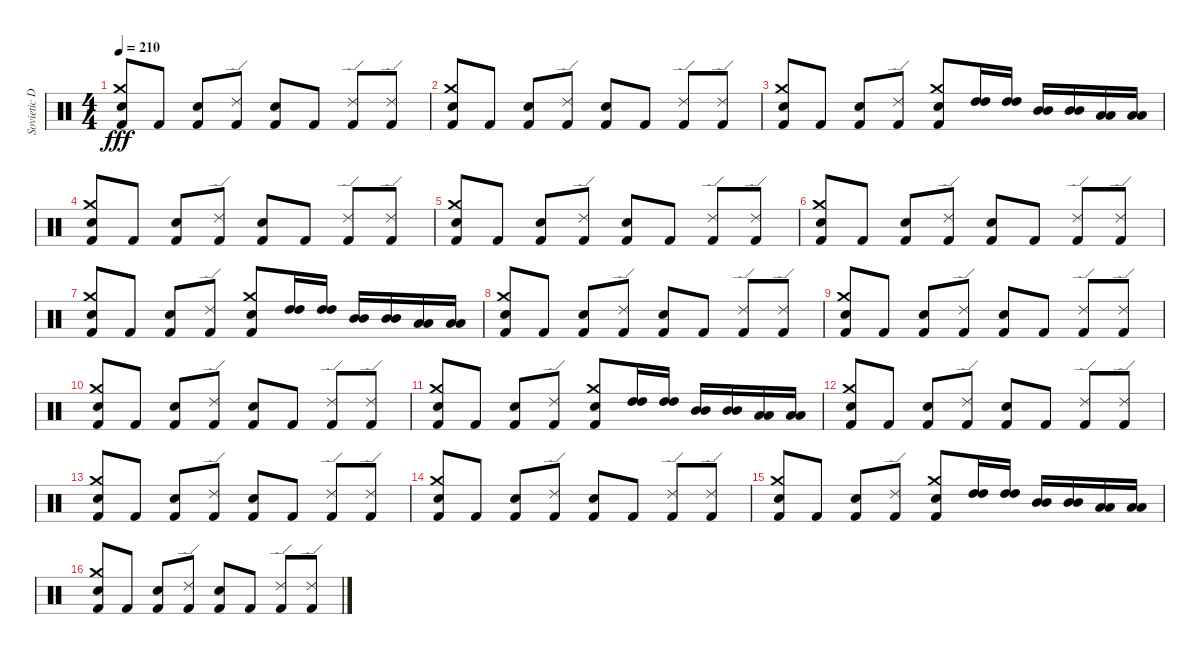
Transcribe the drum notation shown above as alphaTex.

\track ("Sovietic Drummer" "Sovietic D") {instrument percussion}
\staff {score}
\articulation defaults
\ts (4 4)
\tempo 210
\clef neutral
\ks c
("Electric Snare (hit)" "Crash medium (hit)" "Kick (hit) 2").8{dy fff} "Kick (hit) 2".8 ("Electric Snare (hit)" "Kick (hit) 2").8 ("Ride (edge) 2" "Kick (hit) 2").8 ("Electric Snare (hit)" "Kick (hit) 2").8 "Kick (hit) 2".8 ("Ride (edge) 2" "Kick (hit) 2").8 ("Ride (edge) 2" "Kick (hit) 2").8 |
("Electric Snare (hit)" "Crash medium (hit)" "Kick (hit) 2").8 "Kick (hit) 2".8 ("Electric Snare (hit)" "Kick (hit) 2").8 ("Ride (edge) 2" "Kick (hit) 2").8 ("Electric Snare (hit)" "Kick (hit) 2").8 "Kick (hit) 2".8 ("Ride (edge) 2" "Kick (hit) 2").8 ("Ride (edge) 2" "Kick (hit) 2").8 |
("Electric Snare (hit)" "Crash medium (hit)" "Kick (hit) 2").8 "Kick (hit) 2".8 ("Electric Snare (hit)" "Kick (hit) 2").8 ("Ride (edge) 2" "Kick (hit) 2").8 ("Crash medium (hit)" "Electric Snare (hit)" "Kick (hit) 2").8 ("High Tom (hit)" "High Tom (hit)").16 ("High Tom (hit)" "High Tom (hit)").16 ("Mid Tom (hit)" "Mid Tom (hit)").16 ("Mid Tom (hit)" "Mid Tom (hit)").16 ("Low Tom (hit)" "Low Tom (hit)").16 ("Low Tom (hit)" "Low Tom (hit)").16 |
("Electric Snare (hit)" "Crash medium (hit)" "Kick (hit) 2").8 "Kick (hit) 2".8 ("Electric Snare (hit)" "Kick (hit) 2").8 ("Ride (edge) 2" "Kick (hit) 2").8 ("Electric Snare (hit)" "Kick (hit) 2").8 "Kick (hit) 2".8 ("Ride (edge) 2" "Kick (hit) 2").8 ("Ride (edge) 2" "Kick (hit) 2").8 |
("Electric Snare (hit)" "Crash medium (hit)" "Kick (hit) 2").8 "Kick (hit) 2".8 ("Electric Snare (hit)" "Kick (hit) 2").8 ("Ride (edge) 2" "Kick (hit) 2").8 ("Electric Snare (hit)" "Kick (hit) 2").8 "Kick (hit) 2".8 ("Ride (edge) 2" "Kick (hit) 2").8 ("Ride (edge) 2" "Kick (hit) 2").8 |
("Electric Snare (hit)" "Crash medium (hit)" "Kick (hit) 2").8 "Kick (hit) 2".8 ("Electric Snare (hit)" "Kick (hit) 2").8 ("Ride (edge) 2" "Kick (hit) 2").8 ("Electric Snare (hit)" "Kick (hit) 2").8 "Kick (hit) 2".8 ("Ride (edge) 2" "Kick (hit) 2").8 ("Ride (edge) 2" "Kick (hit) 2").8 |
("Electric Snare (hit)" "Crash medium (hit)" "Kick (hit) 2").8 "Kick (hit) 2".8 ("Electric Snare (hit)" "Kick (hit) 2").8 ("Ride (edge) 2" "Kick (hit) 2").8 ("Crash medium (hit)" "Electric Snare (hit)" "Kick (hit) 2").8 ("High Tom (hit)" "High Tom (hit)").16 ("High Tom (hit)" "High Tom (hit)").16 ("Mid Tom (hit)" "Mid Tom (hit)").16 ("Mid Tom (hit)" "Mid Tom (hit)").16 ("Low Tom (hit)" "Low Tom (hit)").16 ("Low Tom (hit)" "Low Tom (hit)").16 |
("Electric Snare (hit)" "Crash medium (hit)" "Kick (hit) 2").8 "Kick (hit) 2".8 ("Electric Snare (hit)" "Kick (hit) 2").8 ("Ride (edge) 2" "Kick (hit) 2").8 ("Electric Snare (hit)" "Kick (hit) 2").8 "Kick (hit) 2".8 ("Ride (edge) 2" "Kick (hit) 2").8 ("Ride (edge) 2" "Kick (hit) 2").8 |
("Electric Snare (hit)" "Crash medium (hit)" "Kick (hit) 2").8 "Kick (hit) 2".8 ("Electric Snare (hit)" "Kick (hit) 2").8 ("Ride (edge) 2" "Kick (hit) 2").8 ("Electric Snare (hit)" "Kick (hit) 2").8 "Kick (hit) 2".8 ("Ride (edge) 2" "Kick (hit) 2").8 ("Ride (edge) 2" "Kick (hit) 2").8 |
("Electric Snare (hit)" "Crash medium (hit)" "Kick (hit) 2").8 "Kick (hit) 2".8 ("Electric Snare (hit)" "Kick (hit) 2").8 ("Ride (edge) 2" "Kick (hit) 2").8 ("Electric Snare (hit)" "Kick (hit) 2").8 "Kick (hit) 2".8 ("Ride (edge) 2" "Kick (hit) 2").8 ("Ride (edge) 2" "Kick (hit) 2").8 |
("Electric Snare (hit)" "Crash medium (hit)" "Kick (hit) 2").8 "Kick (hit) 2".8 ("Electric Snare (hit)" "Kick (hit) 2").8 ("Ride (edge) 2" "Kick (hit) 2").8 ("Crash medium (hit)" "Electric Snare (hit)" "Kick (hit) 2").8 ("High Tom (hit)" "High Tom (hit)").16 ("High Tom (hit)" "High Tom (hit)").16 ("Mid Tom (hit)" "Mid Tom (hit)").16 ("Mid Tom (hit)" "Mid Tom (hit)").16 ("Low Tom (hit)" "Low Tom (hit)").16 ("Low Tom (hit)" "Low Tom (hit)").16 |
("Electric Snare (hit)" "Crash medium (hit)" "Kick (hit) 2").8 "Kick (hit) 2".8 ("Electric Snare (hit)" "Kick (hit) 2").8 ("Ride (edge) 2" "Kick (hit) 2").8 ("Electric Snare (hit)" "Kick (hit) 2").8 "Kick (hit) 2".8 ("Ride (edge) 2" "Kick (hit) 2").8 ("Ride (edge) 2" "Kick (hit) 2").8 |
("Electric Snare (hit)" "Crash medium (hit)" "Kick (hit) 2").8 "Kick (hit) 2".8 ("Electric Snare (hit)" "Kick (hit) 2").8 ("Ride (edge) 2" "Kick (hit) 2").8 ("Electric Snare (hit)" "Kick (hit) 2").8 "Kick (hit) 2".8 ("Ride (edge) 2" "Kick (hit) 2").8 ("Ride (edge) 2" "Kick (hit) 2").8 |
("Electric Snare (hit)" "Crash medium (hit)" "Kick (hit) 2").8 "Kick (hit) 2".8 ("Electric Snare (hit)" "Kick (hit) 2").8 ("Ride (edge) 2" "Kick (hit) 2").8 ("Electric Snare (hit)" "Kick (hit) 2").8 "Kick (hit) 2".8 ("Ride (edge) 2" "Kick (hit) 2").8 ("Ride (edge) 2" "Kick (hit) 2").8 |
("Electric Snare (hit)" "Crash medium (hit)" "Kick (hit) 2").8 "Kick (hit) 2".8 ("Electric Snare (hit)" "Kick (hit) 2").8 ("Ride (edge) 2" "Kick (hit) 2").8 ("Crash medium (hit)" "Electric Snare (hit)" "Kick (hit) 2").8 ("High Tom (hit)" "High Tom (hit)").16 ("High Tom (hit)" "High Tom (hit)").16 ("Mid Tom (hit)" "Mid Tom (hit)").16 ("Mid Tom (hit)" "Mid Tom (hit)").16 ("Low Tom (hit)" "Low Tom (hit)").16 ("Low Tom (hit)" "Low Tom (hit)").16 |
("Electric Snare (hit)" "Crash medium (hit)" "Kick (hit) 2").8 "Kick (hit) 2".8 ("Electric Snare (hit)" "Kick (hit) 2").8 ("Ride (edge) 2" "Kick (hit) 2").8 ("Electric Snare (hit)" "Kick (hit) 2").8 "Kick (hit) 2".8 ("Ride (edge) 2" "Kick (hit) 2").8 ("Ride (edge) 2" "Kick (hit) 2").8
